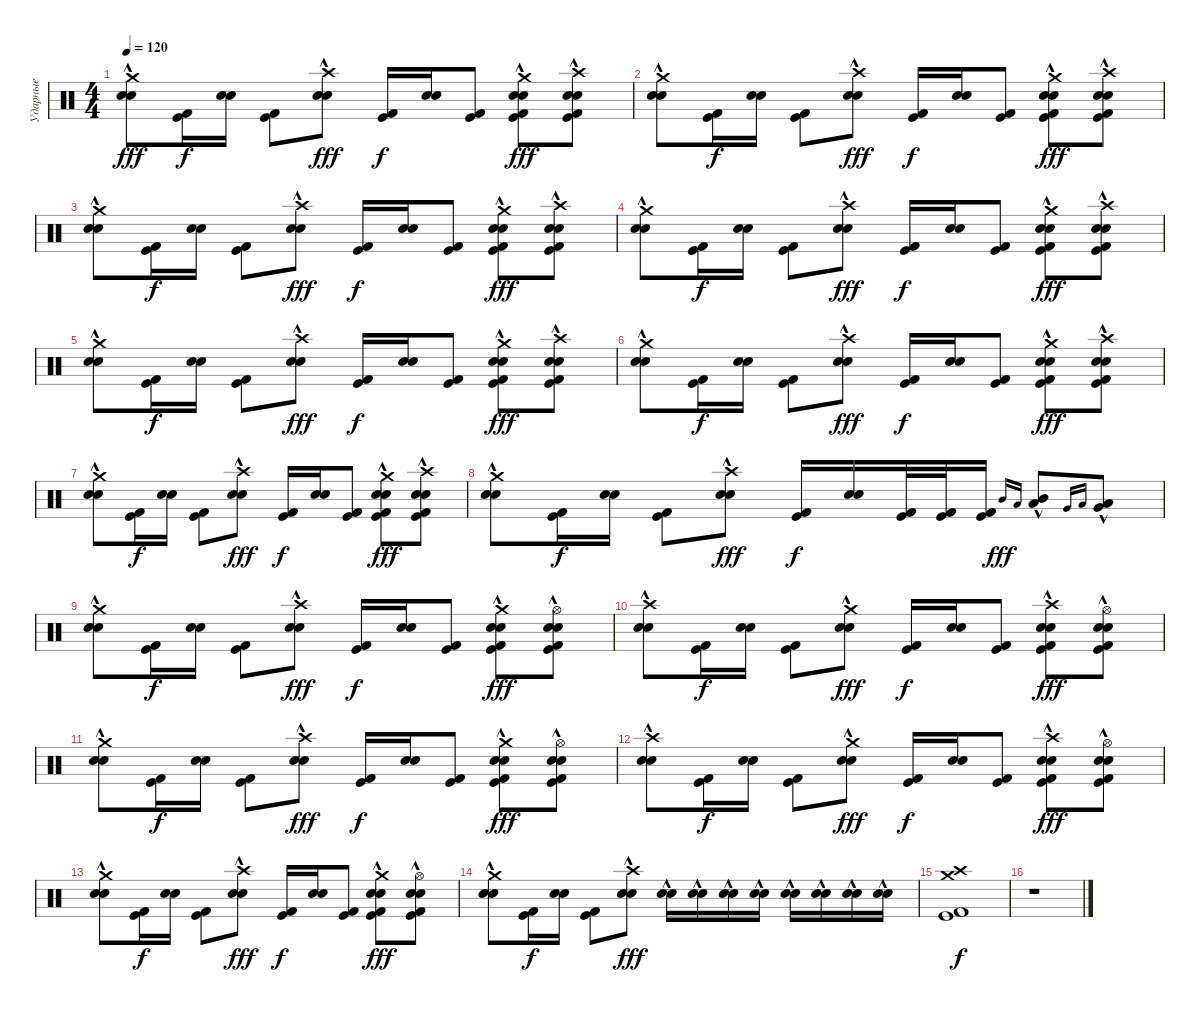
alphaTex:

\track ("Ударные" "Ударные") {instrument percussion}
\staff {score}
\articulation defaults
\ts (4 4)
\tempo 120
\clef neutral
\ks c
("Crash medium (hit)" "Snare (hit) 2"{hac} "Electric Snare (hit)"{hac}).8{dy fff} ("Kick (hit)" "Kick (hit) 2").16{dy f} ("Snare (hit) 2" "Electric Snare (hit)").16 ("Kick (hit)" "Kick (hit) 2").8 ("Crash high (hit)" "Snare (hit) 2"{hac} "Electric Snare (hit)"{hac}).8{dy fff} ("Kick (hit)" "Kick (hit) 2").16{dy f} ("Snare (hit) 2" "Electric Snare (hit)").16 ("Kick (hit)" "Kick (hit) 2").8 ("Crash medium (hit)" "Kick (hit)" "Kick (hit) 2" "Snare (hit) 2"{hac} "Electric Snare (hit)"{hac}).8{dy fff} ("Crash high (hit)" "Kick (hit)" "Kick (hit) 2" "Snare (hit) 2"{hac} "Electric Snare (hit)"{hac}).8 |
("Crash medium (hit)" "Snare (hit) 2"{hac} "Electric Snare (hit)"{hac}).8 ("Kick (hit)" "Kick (hit) 2").16{dy f} ("Snare (hit) 2" "Electric Snare (hit)").16 ("Kick (hit)" "Kick (hit) 2").8 ("Crash high (hit)" "Snare (hit) 2"{hac} "Electric Snare (hit)"{hac}).8{dy fff} ("Kick (hit)" "Kick (hit) 2").16{dy f} ("Snare (hit) 2" "Electric Snare (hit)").16 ("Kick (hit)" "Kick (hit) 2").8 ("Crash medium (hit)" "Kick (hit)" "Kick (hit) 2" "Snare (hit) 2"{hac} "Electric Snare (hit)"{hac}).8{dy fff} ("Crash high (hit)" "Kick (hit)" "Kick (hit) 2" "Snare (hit) 2"{hac} "Electric Snare (hit)"{hac}).8 |
("Crash medium (hit)" "Snare (hit) 2"{hac} "Electric Snare (hit)"{hac}).8 ("Kick (hit)" "Kick (hit) 2").16{dy f} ("Snare (hit) 2" "Electric Snare (hit)").16 ("Kick (hit)" "Kick (hit) 2").8 ("Crash high (hit)" "Snare (hit) 2"{hac} "Electric Snare (hit)"{hac}).8{dy fff} ("Kick (hit)" "Kick (hit) 2").16{dy f} ("Snare (hit) 2" "Electric Snare (hit)").16 ("Kick (hit)" "Kick (hit) 2").8 ("Crash medium (hit)" "Kick (hit)" "Kick (hit) 2" "Snare (hit) 2"{hac} "Electric Snare (hit)"{hac}).8{dy fff} ("Crash high (hit)" "Kick (hit)" "Kick (hit) 2" "Snare (hit) 2"{hac} "Electric Snare (hit)"{hac}).8 |
("Crash medium (hit)" "Snare (hit) 2"{hac} "Electric Snare (hit)"{hac}).8 ("Kick (hit)" "Kick (hit) 2").16{dy f} ("Snare (hit) 2" "Electric Snare (hit)").16 ("Kick (hit)" "Kick (hit) 2").8 ("Crash high (hit)" "Snare (hit) 2"{hac} "Electric Snare (hit)"{hac}).8{dy fff} ("Kick (hit)" "Kick (hit) 2").16{dy f} ("Snare (hit) 2" "Electric Snare (hit)").16 ("Kick (hit)" "Kick (hit) 2").8 ("Crash medium (hit)" "Kick (hit)" "Kick (hit) 2" "Snare (hit) 2"{hac} "Electric Snare (hit)"{hac}).8{dy fff} ("Crash high (hit)" "Kick (hit)" "Kick (hit) 2" "Snare (hit) 2"{hac} "Electric Snare (hit)"{hac}).8 |
("Crash medium (hit)" "Snare (hit) 2"{hac} "Electric Snare (hit)"{hac}).8 ("Kick (hit)" "Kick (hit) 2").16{dy f} ("Snare (hit) 2" "Electric Snare (hit)").16 ("Kick (hit)" "Kick (hit) 2").8 ("Crash high (hit)" "Snare (hit) 2"{hac} "Electric Snare (hit)"{hac}).8{dy fff} ("Kick (hit)" "Kick (hit) 2").16{dy f} ("Snare (hit) 2" "Electric Snare (hit)").16 ("Kick (hit)" "Kick (hit) 2").8 ("Crash medium (hit)" "Kick (hit)" "Kick (hit) 2" "Snare (hit) 2"{hac} "Electric Snare (hit)"{hac}).8{dy fff} ("Crash high (hit)" "Kick (hit)" "Kick (hit) 2" "Snare (hit) 2"{hac} "Electric Snare (hit)"{hac}).8 |
("Crash medium (hit)" "Snare (hit) 2"{hac} "Electric Snare (hit)"{hac}).8 ("Kick (hit)" "Kick (hit) 2").16{dy f} ("Snare (hit) 2" "Electric Snare (hit)").16 ("Kick (hit)" "Kick (hit) 2").8 ("Crash high (hit)" "Snare (hit) 2"{hac} "Electric Snare (hit)"{hac}).8{dy fff} ("Kick (hit)" "Kick (hit) 2").16{dy f} ("Snare (hit) 2" "Electric Snare (hit)").16 ("Kick (hit)" "Kick (hit) 2").8 ("Crash medium (hit)" "Kick (hit)" "Kick (hit) 2" "Snare (hit) 2"{hac} "Electric Snare (hit)"{hac}).8{dy fff} ("Crash high (hit)" "Kick (hit)" "Kick (hit) 2" "Snare (hit) 2"{hac} "Electric Snare (hit)"{hac}).8 |
("Crash medium (hit)" "Snare (hit) 2"{hac} "Electric Snare (hit)"{hac}).8 ("Kick (hit)" "Kick (hit) 2").16{dy f} ("Snare (hit) 2" "Electric Snare (hit)").16 ("Kick (hit)" "Kick (hit) 2").8 ("Crash high (hit)" "Snare (hit) 2"{hac} "Electric Snare (hit)"{hac}).8{dy fff} ("Kick (hit)" "Kick (hit) 2").16{dy f} ("Snare (hit) 2" "Electric Snare (hit)").16 ("Kick (hit)" "Kick (hit) 2").8 ("Crash medium (hit)" "Kick (hit)" "Kick (hit) 2" "Snare (hit) 2"{hac} "Electric Snare (hit)"{hac}).8{dy fff} ("Crash high (hit)" "Kick (hit)" "Kick (hit) 2" "Snare (hit) 2"{hac} "Electric Snare (hit)"{hac}).8 |
("Crash medium (hit)" "Snare (hit) 2"{hac} "Electric Snare (hit)"{hac}).8 ("Kick (hit)" "Kick (hit) 2").16{dy f} ("Snare (hit) 2" "Electric Snare (hit)").16 ("Kick (hit)" "Kick (hit) 2").8 ("Crash high (hit)" "Snare (hit) 2"{hac} "Electric Snare (hit)"{hac}).8{dy fff} ("Kick (hit)" "Kick (hit) 2").16{dy f} ("Snare (hit) 2" "Electric Snare (hit)").16 ("Kick (hit)" "Kick (hit) 2").32 ("Kick (hit)" "Kick (hit) 2").32 ("Kick (hit)" "Kick (hit) 2").16 "Mid Tom (hit)".16{gr onbeat dy fff} "Low Tom (hit)".16{gr onbeat} ("Mid Tom (hit)"{hac} "Low Tom (hit)"{hac}).8 "Very Low Tom (hit)".16{gr onbeat} "Low Floor Tom (hit)".16{gr onbeat} ("Very Low Tom (hit)"{hac} "Low Floor Tom (hit)"{hac}).8 |
("Crash medium (hit)" "Snare (hit) 2"{hac} "Electric Snare (hit)"{hac}).8 ("Kick (hit)" "Kick (hit) 2").16{dy f} ("Snare (hit) 2" "Electric Snare (hit)").16 ("Kick (hit)" "Kick (hit) 2").8 ("Crash high (hit)" "Snare (hit) 2"{hac} "Electric Snare (hit)"{hac}).8{dy fff} ("Kick (hit)" "Kick (hit) 2").16{dy f} ("Snare (hit) 2" "Electric Snare (hit)").16 ("Kick (hit)" "Kick (hit) 2").8 ("Crash medium (hit)" "Kick (hit)" "Kick (hit) 2" "Snare (hit) 2"{hac} "Electric Snare (hit)"{hac}).8{dy fff} ("Hi-Hat (open)" "Kick (hit)" "Kick (hit) 2" "Snare (hit) 2"{hac} "Electric Snare (hit)"{hac}).8 |
("Crash high (hit)" "Snare (hit) 2"{hac} "Electric Snare (hit)"{hac}).8 ("Kick (hit)" "Kick (hit) 2").16{dy f} ("Snare (hit) 2" "Electric Snare (hit)").16 ("Kick (hit)" "Kick (hit) 2").8 ("Crash medium (hit)" "Snare (hit) 2"{hac} "Electric Snare (hit)"{hac}).8{dy fff} ("Kick (hit)" "Kick (hit) 2").16{dy f} ("Snare (hit) 2" "Electric Snare (hit)").16 ("Kick (hit)" "Kick (hit) 2").8 ("Crash high (hit)" "Kick (hit)" "Kick (hit) 2" "Snare (hit) 2"{hac} "Electric Snare (hit)"{hac}).8{dy fff} ("Hi-Hat (open)" "Kick (hit)" "Kick (hit) 2" "Snare (hit) 2"{hac} "Electric Snare (hit)"{hac}).8 |
("Crash medium (hit)" "Snare (hit) 2"{hac} "Electric Snare (hit)"{hac}).8 ("Kick (hit)" "Kick (hit) 2").16{dy f} ("Snare (hit) 2" "Electric Snare (hit)").16 ("Kick (hit)" "Kick (hit) 2").8 ("Crash high (hit)" "Snare (hit) 2"{hac} "Electric Snare (hit)"{hac}).8{dy fff} ("Kick (hit)" "Kick (hit) 2").16{dy f} ("Snare (hit) 2" "Electric Snare (hit)").16 ("Kick (hit)" "Kick (hit) 2").8 ("Crash medium (hit)" "Kick (hit)" "Kick (hit) 2" "Snare (hit) 2"{hac} "Electric Snare (hit)"{hac}).8{dy fff} ("Hi-Hat (open)" "Kick (hit)" "Kick (hit) 2" "Snare (hit) 2"{hac} "Electric Snare (hit)"{hac}).8 |
("Crash high (hit)" "Snare (hit) 2"{hac} "Electric Snare (hit)"{hac}).8 ("Kick (hit)" "Kick (hit) 2").16{dy f} ("Snare (hit) 2" "Electric Snare (hit)").16 ("Kick (hit)" "Kick (hit) 2").8 ("Crash medium (hit)" "Snare (hit) 2"{hac} "Electric Snare (hit)"{hac}).8{dy fff} ("Kick (hit)" "Kick (hit) 2").16{dy f} ("Snare (hit) 2" "Electric Snare (hit)").16 ("Kick (hit)" "Kick (hit) 2").8 ("Crash high (hit)" "Kick (hit)" "Kick (hit) 2" "Snare (hit) 2"{hac} "Electric Snare (hit)"{hac}).8{dy fff} ("Hi-Hat (open)" "Kick (hit)" "Kick (hit) 2" "Snare (hit) 2"{hac} "Electric Snare (hit)"{hac}).8 |
("Crash medium (hit)" "Snare (hit) 2"{hac} "Electric Snare (hit)"{hac}).8 ("Kick (hit)" "Kick (hit) 2").16{dy f} ("Snare (hit) 2" "Electric Snare (hit)").16 ("Kick (hit)" "Kick (hit) 2").8 ("Crash high (hit)" "Snare (hit) 2"{hac} "Electric Snare (hit)"{hac}).8{dy fff} ("Kick (hit)" "Kick (hit) 2").16{dy f} ("Snare (hit) 2" "Electric Snare (hit)").16 ("Kick (hit)" "Kick (hit) 2").8 ("Crash medium (hit)" "Kick (hit)" "Kick (hit) 2" "Snare (hit) 2"{hac} "Electric Snare (hit)"{hac}).8{dy fff} ("Hi-Hat (open)" "Kick (hit)" "Kick (hit) 2" "Snare (hit) 2"{hac} "Electric Snare (hit)"{hac}).8 |
("Crash medium (hit)" "Snare (hit) 2"{hac} "Electric Snare (hit)"{hac}).8 ("Kick (hit)" "Kick (hit) 2").16{dy f} ("Snare (hit) 2" "Electric Snare (hit)").16 ("Kick (hit)" "Kick (hit) 2").8 ("Crash high (hit)" "Snare (hit) 2"{hac} "Electric Snare (hit)"{hac}).8{dy fff} ("Snare (hit) 2"{hac} "Electric Snare (hit)"{hac}).16 ("Snare (hit) 2"{hac} "Electric Snare (hit)"{hac}).16 ("Snare (hit) 2"{hac} "Electric Snare (hit)"{hac}).16 ("Snare (hit) 2"{hac} "Electric Snare (hit)"{hac}).16 ("Snare (hit) 2"{hac} "Electric Snare (hit)"{hac}).16 ("Snare (hit) 2"{hac} "Electric Snare (hit)"{hac}).16 ("Snare (hit) 2"{hac} "Electric Snare (hit)"{hac}).16 ("Snare (hit) 2"{hac} "Electric Snare (hit)"{hac}).16 |
("Crash high (hit)" "Kick (hit)" "Kick (hit) 2" "Crash medium (hit)").1{dy f} |
r.1
